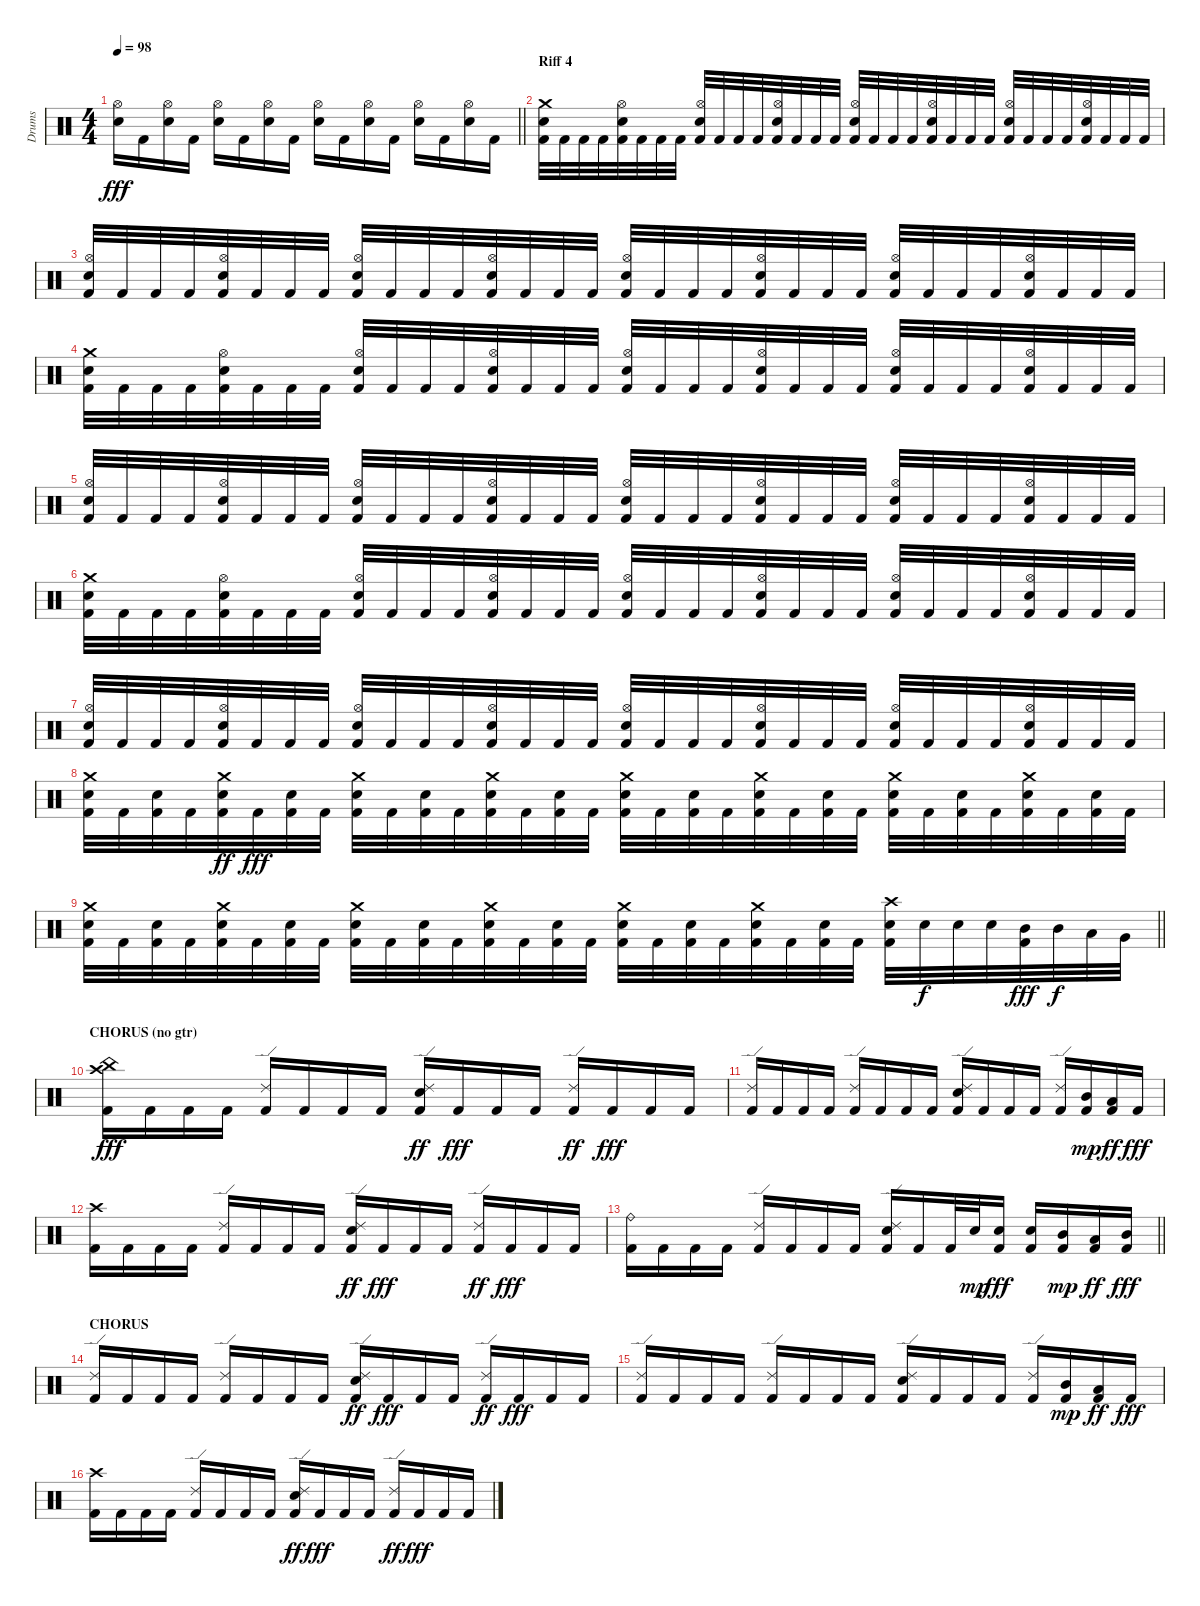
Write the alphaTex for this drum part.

\track ("Drums" "Drums") {instrument percussion}
\staff {score}
\articulation defaults
\ts (4 4)
\tempo 98
\clef neutral
\barLineRight lightlight
\ks c
("Snare (hit) 2" "Hi-Hat (open)").16{dy fff} "Kick (hit) 2".16 ("Snare (hit) 2" "Hi-Hat (open)").16 "Kick (hit) 2".16 ("Snare (hit) 2" "Hi-Hat (open)").16 "Kick (hit) 2".16 ("Snare (hit) 2" "Hi-Hat (open)").16 "Kick (hit) 2".16 ("Snare (hit) 2" "Hi-Hat (open)").16 "Kick (hit) 2".16 ("Snare (hit) 2" "Hi-Hat (open)").16 "Kick (hit) 2".16 ("Snare (hit) 2" "Hi-Hat (open)").16 "Kick (hit) 2".16 ("Snare (hit) 2" "Hi-Hat (open)").16 "Kick (hit) 2".16 |
\section ("" "Riff 4")
("Kick (hit) 2" "Snare (hit) 2" "Crash medium (hit)").32 "Kick (hit) 2".32 "Kick (hit) 2".32 "Kick (hit) 2".32 ("Kick (hit) 2" "Snare (hit) 2" "Hi-Hat (open)").32 "Kick (hit) 2".32 "Kick (hit) 2".32 "Kick (hit) 2".32 ("Kick (hit) 2" "Snare (hit) 2" "Hi-Hat (open)").32 "Kick (hit) 2".32 "Kick (hit) 2".32 "Kick (hit) 2".32 ("Kick (hit) 2" "Snare (hit) 2" "Hi-Hat (open)").32 "Kick (hit) 2".32 "Kick (hit) 2".32 "Kick (hit) 2".32 ("Kick (hit) 2" "Snare (hit) 2" "Hi-Hat (open)").32 "Kick (hit) 2".32 "Kick (hit) 2".32 "Kick (hit) 2".32 ("Kick (hit) 2" "Snare (hit) 2" "Hi-Hat (open)").32 "Kick (hit) 2".32 "Kick (hit) 2".32 "Kick (hit) 2".32 ("Kick (hit) 2" "Snare (hit) 2" "Hi-Hat (open)").32 "Kick (hit) 2".32 "Kick (hit) 2".32 "Kick (hit) 2".32 ("Kick (hit) 2" "Snare (hit) 2" "Hi-Hat (open)").32 "Kick (hit) 2".32 "Kick (hit) 2".32 "Kick (hit) 2".32 |
("Kick (hit) 2" "Snare (hit) 2" "Hi-Hat (open)").32 "Kick (hit) 2".32 "Kick (hit) 2".32 "Kick (hit) 2".32 ("Kick (hit) 2" "Snare (hit) 2" "Hi-Hat (open)").32 "Kick (hit) 2".32 "Kick (hit) 2".32 "Kick (hit) 2".32 ("Kick (hit) 2" "Snare (hit) 2" "Hi-Hat (open)").32 "Kick (hit) 2".32 "Kick (hit) 2".32 "Kick (hit) 2".32 ("Kick (hit) 2" "Snare (hit) 2" "Hi-Hat (open)").32 "Kick (hit) 2".32 "Kick (hit) 2".32 "Kick (hit) 2".32 ("Kick (hit) 2" "Snare (hit) 2" "Hi-Hat (open)").32 "Kick (hit) 2".32 "Kick (hit) 2".32 "Kick (hit) 2".32 ("Kick (hit) 2" "Snare (hit) 2" "Hi-Hat (open)").32 "Kick (hit) 2".32 "Kick (hit) 2".32 "Kick (hit) 2".32 ("Kick (hit) 2" "Snare (hit) 2" "Hi-Hat (open)").32 "Kick (hit) 2".32 "Kick (hit) 2".32 "Kick (hit) 2".32 ("Kick (hit) 2" "Snare (hit) 2" "Hi-Hat (open)").32 "Kick (hit) 2".32 "Kick (hit) 2".32 "Kick (hit) 2".32 |
("Kick (hit) 2" "Snare (hit) 2" "Crash medium (hit)").32 "Kick (hit) 2".32 "Kick (hit) 2".32 "Kick (hit) 2".32 ("Kick (hit) 2" "Snare (hit) 2" "Hi-Hat (open)").32 "Kick (hit) 2".32 "Kick (hit) 2".32 "Kick (hit) 2".32 ("Kick (hit) 2" "Snare (hit) 2" "Hi-Hat (open)").32 "Kick (hit) 2".32 "Kick (hit) 2".32 "Kick (hit) 2".32 ("Kick (hit) 2" "Snare (hit) 2" "Hi-Hat (open)").32 "Kick (hit) 2".32 "Kick (hit) 2".32 "Kick (hit) 2".32 ("Kick (hit) 2" "Snare (hit) 2" "Hi-Hat (open)").32 "Kick (hit) 2".32 "Kick (hit) 2".32 "Kick (hit) 2".32 ("Kick (hit) 2" "Snare (hit) 2" "Hi-Hat (open)").32 "Kick (hit) 2".32 "Kick (hit) 2".32 "Kick (hit) 2".32 ("Kick (hit) 2" "Snare (hit) 2" "Hi-Hat (open)").32 "Kick (hit) 2".32 "Kick (hit) 2".32 "Kick (hit) 2".32 ("Kick (hit) 2" "Snare (hit) 2" "Hi-Hat (open)").32 "Kick (hit) 2".32 "Kick (hit) 2".32 "Kick (hit) 2".32 |
("Kick (hit) 2" "Snare (hit) 2" "Hi-Hat (open)").32 "Kick (hit) 2".32 "Kick (hit) 2".32 "Kick (hit) 2".32 ("Kick (hit) 2" "Snare (hit) 2" "Hi-Hat (open)").32 "Kick (hit) 2".32 "Kick (hit) 2".32 "Kick (hit) 2".32 ("Kick (hit) 2" "Snare (hit) 2" "Hi-Hat (open)").32 "Kick (hit) 2".32 "Kick (hit) 2".32 "Kick (hit) 2".32 ("Kick (hit) 2" "Snare (hit) 2" "Hi-Hat (open)").32 "Kick (hit) 2".32 "Kick (hit) 2".32 "Kick (hit) 2".32 ("Kick (hit) 2" "Snare (hit) 2" "Hi-Hat (open)").32 "Kick (hit) 2".32 "Kick (hit) 2".32 "Kick (hit) 2".32 ("Kick (hit) 2" "Snare (hit) 2" "Hi-Hat (open)").32 "Kick (hit) 2".32 "Kick (hit) 2".32 "Kick (hit) 2".32 ("Kick (hit) 2" "Snare (hit) 2" "Hi-Hat (open)").32 "Kick (hit) 2".32 "Kick (hit) 2".32 "Kick (hit) 2".32 ("Kick (hit) 2" "Snare (hit) 2" "Hi-Hat (open)").32 "Kick (hit) 2".32 "Kick (hit) 2".32 "Kick (hit) 2".32 |
("Kick (hit) 2" "Snare (hit) 2" "Crash medium (hit)").32 "Kick (hit) 2".32 "Kick (hit) 2".32 "Kick (hit) 2".32 ("Kick (hit) 2" "Snare (hit) 2" "Hi-Hat (open)").32 "Kick (hit) 2".32 "Kick (hit) 2".32 "Kick (hit) 2".32 ("Kick (hit) 2" "Snare (hit) 2" "Hi-Hat (open)").32 "Kick (hit) 2".32 "Kick (hit) 2".32 "Kick (hit) 2".32 ("Kick (hit) 2" "Snare (hit) 2" "Hi-Hat (open)").32 "Kick (hit) 2".32 "Kick (hit) 2".32 "Kick (hit) 2".32 ("Kick (hit) 2" "Snare (hit) 2" "Hi-Hat (open)").32 "Kick (hit) 2".32 "Kick (hit) 2".32 "Kick (hit) 2".32 ("Kick (hit) 2" "Snare (hit) 2" "Hi-Hat (open)").32 "Kick (hit) 2".32 "Kick (hit) 2".32 "Kick (hit) 2".32 ("Kick (hit) 2" "Snare (hit) 2" "Hi-Hat (open)").32 "Kick (hit) 2".32 "Kick (hit) 2".32 "Kick (hit) 2".32 ("Kick (hit) 2" "Snare (hit) 2" "Hi-Hat (open)").32 "Kick (hit) 2".32 "Kick (hit) 2".32 "Kick (hit) 2".32 |
("Kick (hit) 2" "Snare (hit) 2" "Hi-Hat (open)").32 "Kick (hit) 2".32 "Kick (hit) 2".32 "Kick (hit) 2".32 ("Kick (hit) 2" "Snare (hit) 2" "Hi-Hat (open)").32 "Kick (hit) 2".32 "Kick (hit) 2".32 "Kick (hit) 2".32 ("Kick (hit) 2" "Snare (hit) 2" "Hi-Hat (open)").32 "Kick (hit) 2".32 "Kick (hit) 2".32 "Kick (hit) 2".32 ("Kick (hit) 2" "Snare (hit) 2" "Hi-Hat (open)").32 "Kick (hit) 2".32 "Kick (hit) 2".32 "Kick (hit) 2".32 ("Kick (hit) 2" "Snare (hit) 2" "Hi-Hat (open)").32 "Kick (hit) 2".32 "Kick (hit) 2".32 "Kick (hit) 2".32 ("Kick (hit) 2" "Snare (hit) 2" "Hi-Hat (open)").32 "Kick (hit) 2".32 "Kick (hit) 2".32 "Kick (hit) 2".32 ("Kick (hit) 2" "Snare (hit) 2" "Hi-Hat (open)").32 "Kick (hit) 2".32 "Kick (hit) 2".32 "Kick (hit) 2".32 ("Kick (hit) 2" "Snare (hit) 2" "Hi-Hat (open)").32 "Kick (hit) 2".32 "Kick (hit) 2".32 "Kick (hit) 2".32 |
("Kick (hit) 2" "Snare (hit) 2" "Crash medium (hit)").32 "Kick (hit) 2".32 ("Kick (hit) 2" "Snare (hit) 2").32 "Kick (hit) 2".32 ("Kick (hit) 2" "Snare (hit) 2" "Crash medium (hit)").32{dy ff} "Kick (hit) 2".32{dy fff} ("Kick (hit) 2" "Snare (hit) 2").32 "Kick (hit) 2".32 ("Kick (hit) 2" "Snare (hit) 2" "Crash medium (hit)").32 "Kick (hit) 2".32 ("Kick (hit) 2" "Snare (hit) 2").32 "Kick (hit) 2".32 ("Kick (hit) 2" "Snare (hit) 2" "Crash medium (hit)").32 "Kick (hit) 2".32 ("Kick (hit) 2" "Snare (hit) 2").32 "Kick (hit) 2".32 ("Kick (hit) 2" "Snare (hit) 2" "Crash medium (hit)").32 "Kick (hit) 2".32 ("Kick (hit) 2" "Snare (hit) 2").32 "Kick (hit) 2".32 ("Kick (hit) 2" "Snare (hit) 2" "Crash medium (hit)").32 "Kick (hit) 2".32 ("Kick (hit) 2" "Snare (hit) 2").32 "Kick (hit) 2".32 ("Kick (hit) 2" "Snare (hit) 2" "Crash medium (hit)").32 "Kick (hit) 2".32 ("Kick (hit) 2" "Snare (hit) 2").32 "Kick (hit) 2".32 ("Kick (hit) 2" "Snare (hit) 2" "Crash medium (hit)").32 "Kick (hit) 2".32 ("Kick (hit) 2" "Snare (hit) 2").32 "Kick (hit) 2".32 |
\barLineRight lightlight
("Kick (hit) 2" "Snare (hit) 2" "Crash medium (hit)").32 "Kick (hit) 2".32 ("Kick (hit) 2" "Snare (hit) 2").32 "Kick (hit) 2".32 ("Kick (hit) 2" "Snare (hit) 2" "Crash medium (hit)").32 "Kick (hit) 2".32 ("Kick (hit) 2" "Snare (hit) 2").32 "Kick (hit) 2".32 ("Kick (hit) 2" "Snare (hit) 2" "Crash medium (hit)").32 "Kick (hit) 2".32 ("Kick (hit) 2" "Snare (hit) 2").32 "Kick (hit) 2".32 ("Kick (hit) 2" "Snare (hit) 2" "Crash medium (hit)").32 "Kick (hit) 2".32 ("Kick (hit) 2" "Snare (hit) 2").32 "Kick (hit) 2".32 ("Kick (hit) 2" "Snare (hit) 2" "Crash medium (hit)").32 "Kick (hit) 2".32 ("Kick (hit) 2" "Snare (hit) 2").32 "Kick (hit) 2".32 ("Kick (hit) 2" "Snare (hit) 2" "Crash medium (hit)").32 "Kick (hit) 2".32 ("Kick (hit) 2" "Snare (hit) 2").32 "Kick (hit) 2".32 ("Kick (hit) 2" "Snare (hit) 2" "Crash high (hit)").32 "Snare (hit) 2".32{dy f} "Snare (hit) 2".32 "Snare (hit) 2".32 ("Kick (hit) 2" "Mid Tom (hit)").32{dy fff} "Mid Tom (hit)".32{dy f} "Low Tom (hit)".32 "Very Low Tom (hit)".32 |
\section ("" "CHORUS (no gtr)")
("Kick (hit) 2" "Crash high (hit)" "China (hit)").16{dy fff} "Kick (hit) 2".16 "Kick (hit) 2".16 "Kick (hit) 2".16 ("Kick (hit) 2" "Ride (edge) 2").16 "Kick (hit) 2".16 "Kick (hit) 2".16 "Kick (hit) 2".16 ("Kick (hit) 2" "Snare (hit) 2" "Ride (edge) 2").16{dy ff} "Kick (hit) 2".16{dy fff} "Kick (hit) 2".16 "Kick (hit) 2".16 ("Kick (hit) 2" "Ride (edge) 2").16{dy ff} "Kick (hit) 2".16{dy fff} "Kick (hit) 2".16 "Kick (hit) 2".16 |
("Kick (hit) 2" "Ride (edge) 2").16 "Kick (hit) 2".16 "Kick (hit) 2".16 "Kick (hit) 2".16 ("Kick (hit) 2" "Ride (edge) 2").16 "Kick (hit) 2".16 "Kick (hit) 2".16 "Kick (hit) 2".16 ("Kick (hit) 2" "Snare (hit) 2" "Ride (edge) 2").16 "Kick (hit) 2".16 "Kick (hit) 2".16 "Kick (hit) 2".16 ("Kick (hit) 2" "Ride (edge) 2").16 ("Kick (hit) 2" "Mid Tom (hit)").16{dy mp} ("Kick (hit) 2" "Low Tom (hit)").16{dy ff} "Kick (hit) 2".16{dy fff} |
("Kick (hit) 2" "Crash high (hit)").16 "Kick (hit) 2".16 "Kick (hit) 2".16 "Kick (hit) 2".16 ("Kick (hit) 2" "Ride (edge) 2").16 "Kick (hit) 2".16 "Kick (hit) 2".16 "Kick (hit) 2".16 ("Kick (hit) 2" "Snare (hit) 2" "Ride (edge) 2").16{dy ff} "Kick (hit) 2".16{dy fff} "Kick (hit) 2".16 "Kick (hit) 2".16 ("Kick (hit) 2" "Ride (edge) 2").16{dy ff} "Kick (hit) 2".16{dy fff} "Kick (hit) 2".16 "Kick (hit) 2".16 |
\barLineRight lightlight
("Kick (hit) 2" "Ride (bell)").16 "Kick (hit) 2".16 "Kick (hit) 2".16 "Kick (hit) 2".16 ("Kick (hit) 2" "Ride (edge) 2").16 "Kick (hit) 2".16 "Kick (hit) 2".16 "Kick (hit) 2".16 ("Kick (hit) 2" "Snare (hit) 2" "Ride (edge) 2").16 "Kick (hit) 2".16 "Kick (hit) 2".32 "Snare (hit) 2".32{dy mp} ("Kick (hit) 2" "Snare (hit) 2").16{dy fff} ("Kick (hit) 2" "Snare (hit) 2").16 ("Kick (hit) 2" "Mid Tom (hit)").16{dy mp} ("Kick (hit) 2" "Low Tom (hit)").16{dy ff} ("Kick (hit) 2" "Mid Tom (hit)").16{dy fff} |
\section ("" "CHORUS")
("Kick (hit) 2" "Ride (edge) 2").16 "Kick (hit) 2".16 "Kick (hit) 2".16 "Kick (hit) 2".16 ("Kick (hit) 2" "Ride (edge) 2").16 "Kick (hit) 2".16 "Kick (hit) 2".16 "Kick (hit) 2".16 ("Kick (hit) 2" "Snare (hit) 2" "Ride (edge) 2").16{dy ff} "Kick (hit) 2".16{dy fff} "Kick (hit) 2".16 "Kick (hit) 2".16 ("Kick (hit) 2" "Ride (edge) 2").16{dy ff} "Kick (hit) 2".16{dy fff} "Kick (hit) 2".16 "Kick (hit) 2".16 |
("Kick (hit) 2" "Ride (edge) 2").16 "Kick (hit) 2".16 "Kick (hit) 2".16 "Kick (hit) 2".16 ("Kick (hit) 2" "Ride (edge) 2").16 "Kick (hit) 2".16 "Kick (hit) 2".16 "Kick (hit) 2".16 ("Kick (hit) 2" "Snare (hit) 2" "Ride (edge) 2").16 "Kick (hit) 2".16 "Kick (hit) 2".16 "Kick (hit) 2".16 ("Kick (hit) 2" "Ride (edge) 2").16 ("Kick (hit) 2" "Mid Tom (hit)").16{dy mp} ("Kick (hit) 2" "Low Tom (hit)").16{dy ff} "Kick (hit) 2".16{dy fff} |
("Kick (hit) 2" "Crash high (hit)").16 "Kick (hit) 2".16 "Kick (hit) 2".16 "Kick (hit) 2".16 ("Kick (hit) 2" "Ride (edge) 2").16 "Kick (hit) 2".16 "Kick (hit) 2".16 "Kick (hit) 2".16 ("Kick (hit) 2" "Snare (hit) 2" "Ride (edge) 2").16{dy ff} "Kick (hit) 2".16{dy fff} "Kick (hit) 2".16 "Kick (hit) 2".16 ("Kick (hit) 2" "Ride (edge) 2").16{dy ff} "Kick (hit) 2".16{dy fff} "Kick (hit) 2".16 "Kick (hit) 2".16
